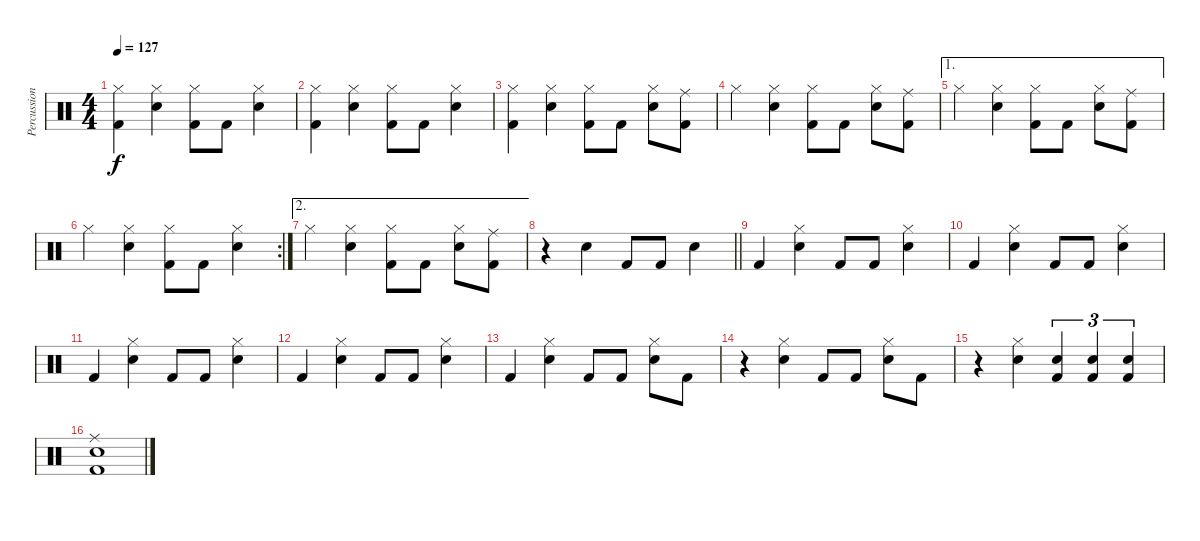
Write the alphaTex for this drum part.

\track ("Percussions" "Percussion") {instrument percussion}
\staff {score}
\articulation defaults
\ts (4 4)
\tempo 127
\clef neutral
\ks c
("Kick (hit) 2" "Hi-Hat (closed)").4{dy f} ("Snare (hit) 2" "Hi-Hat (closed)").4 ("Kick (hit) 2" "Hi-Hat (closed)").8 "Kick (hit) 2".8 ("Snare (hit) 2" "Hi-Hat (closed)").4 |
("Kick (hit) 2" "Hi-Hat (closed)").4 ("Snare (hit) 2" "Hi-Hat (closed)").4 ("Kick (hit) 2" "Hi-Hat (closed)").8 "Kick (hit) 2".8 ("Snare (hit) 2" "Hi-Hat (closed)").4 |
("Kick (hit) 2" "Hi-Hat (closed)").4 ("Snare (hit) 2" "Hi-Hat (closed)").4 ("Kick (hit) 2" "Hi-Hat (closed)").8 "Kick (hit) 2".8 ("Snare (hit) 2" "Hi-Hat (closed)").8 ("Ride (middle)" "Kick (hit) 2").8 |
"Hi-Hat (closed)".4 ("Snare (hit) 2" "Hi-Hat (closed)").4 ("Kick (hit) 2" "Hi-Hat (closed)").8 "Kick (hit) 2".8 ("Snare (hit) 2" "Hi-Hat (closed)").8 ("Kick (hit) 2" "Ride (middle)").8 |
\ae 1 "Hi-Hat (closed)".4
("Snare (hit) 2" "Hi-Hat (closed)").4 ("Kick (hit) 2" "Hi-Hat (closed)").8 "Kick (hit) 2".8 ("Snare (hit) 2" "Hi-Hat (closed)").8 ("Kick (hit) 2" "Ride (middle)").8 |
\rc 2 "Hi-Hat (closed)".4
("Snare (hit) 2" "Hi-Hat (closed)").4 ("Kick (hit) 2" "Hi-Hat (closed)").8 "Kick (hit) 2".8 ("Snare (hit) 2" "Hi-Hat (closed)").4 |
\ae 2 "Hi-Hat (closed)".4
("Snare (hit) 2" "Hi-Hat (closed)").4 ("Kick (hit) 2" "Hi-Hat (closed)").8 "Kick (hit) 2".8 ("Snare (hit) 2" "Hi-Hat (closed)").8 ("Kick (hit) 2" "Ride (middle)").8 |
\barLineRight lightlight
r.4 "Snare (hit) 2".4 "Kick (hit) 2".8 "Kick (hit) 2".8 "Snare (hit) 2".4 |
"Kick (hit) 2".4 ("Snare (hit) 2" "Hi-Hat (closed)").4 "Kick (hit) 2".8 "Kick (hit) 2".8 ("Snare (hit) 2" "Hi-Hat (closed)").4 |
"Kick (hit) 2".4 ("Snare (hit) 2" "Hi-Hat (closed)").4 "Kick (hit) 2".8 "Kick (hit) 2".8 ("Snare (hit) 2" "Hi-Hat (closed)").4 |
"Kick (hit) 2".4 ("Snare (hit) 2" "Hi-Hat (closed)").4 "Kick (hit) 2".8 "Kick (hit) 2".8 ("Snare (hit) 2" "Hi-Hat (closed)").4 |
"Kick (hit) 2".4 ("Snare (hit) 2" "Hi-Hat (closed)").4 "Kick (hit) 2".8 "Kick (hit) 2".8 ("Snare (hit) 2" "Hi-Hat (closed)").4 |
"Kick (hit) 2".4 ("Snare (hit) 2" "Hi-Hat (closed)").4 "Kick (hit) 2".8 "Kick (hit) 2".8 ("Snare (hit) 2" "Hi-Hat (closed)").8 "Kick (hit) 2".8 |
r.4 ("Snare (hit) 2" "Hi-Hat (closed)").4 "Kick (hit) 2".8 "Kick (hit) 2".8 ("Snare (hit) 2" "Hi-Hat (closed)").8 "Kick (hit) 2".8 |
r.4 ("Snare (hit) 2" "Hi-Hat (closed)").4 ("Kick (hit) 2" "Snare (hit) 2").4{tu (3 2)} ("Kick (hit) 2" "Snare (hit) 2").4{tu (3 2)} ("Kick (hit) 2" "Snare (hit) 2").4{tu (3 2)} |
("Ride (middle)" "Snare (hit) 2" "Kick (hit) 2").1
